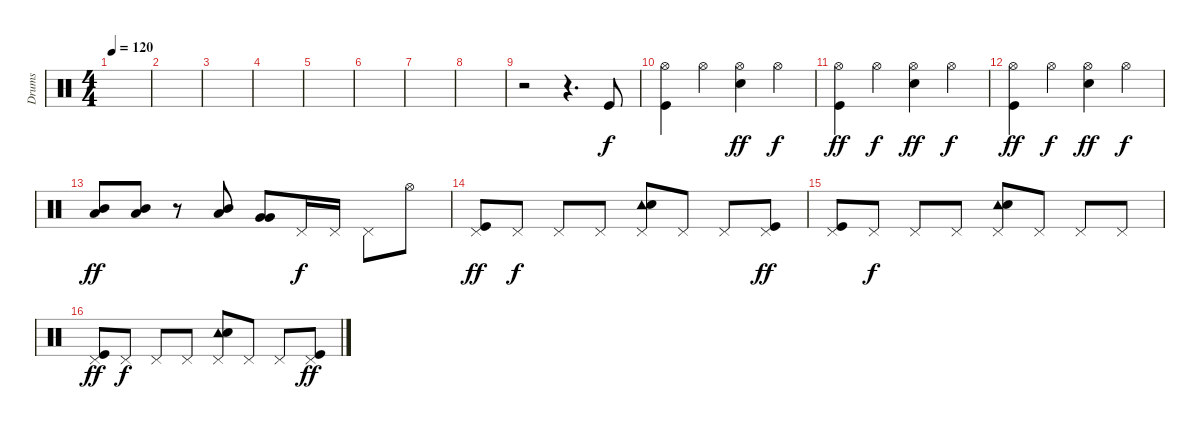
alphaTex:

\track ("Drums" "Drums") {instrument percussion}
\staff {score}
\articulation defaults
\ts (4 4)
\tempo 120
\clef neutral
\ks c
|
|
|
|
|
|
|
|
r.2 r.4{d} "Kick (hit)".8 |
("Hi-Hat (open)" "Kick (hit)").4 "Hi-Hat (open)".4{dy f} ("Hi-Hat (open)" "Electric Snare (hit)").4{dy ff} "Hi-Hat (open)".4{dy f} |
("Hi-Hat (open)" "Kick (hit)").4{dy ff} "Hi-Hat (open)".4{dy f} ("Hi-Hat (open)" "Electric Snare (hit)").4{dy ff} "Hi-Hat (open)".4{dy f} |
("Hi-Hat (open)" "Kick (hit)").4{dy ff} "Hi-Hat (open)".4{dy f} ("Hi-Hat (open)" "Electric Snare (hit)").4{dy ff} "Hi-Hat (open)".4{dy f} |
("Mid Tom (hit)" "Low Tom (hit)").8{dy ff} ("Mid Tom (hit)" "Low Tom (hit)").8 r.8 ("Mid Tom (hit)" "Low Tom (hit)").8 ("Very Low Tom (hit)" "Very Low Tom (hit)").8 "Pedal Hi-Hat (hit)".16{dy f} "Pedal Hi-Hat (hit)".16 "Pedal Hi-Hat (hit)".8 "Hi-Hat (open)".8 |
("Pedal Hi-Hat (hit)" "Kick (hit)").8{dy ff} "Pedal Hi-Hat (hit)".8{dy f} "Pedal Hi-Hat (hit)".8 "Pedal Hi-Hat (hit)".8 ("Pedal Hi-Hat (hit)" "Tambourine (hit)" "Electric Snare (hit)").8 "Pedal Hi-Hat (hit)".8 "Pedal Hi-Hat (hit)".8 ("Pedal Hi-Hat (hit)" "Kick (hit)").8{dy ff} |
("Pedal Hi-Hat (hit)" "Kick (hit)").8 "Pedal Hi-Hat (hit)".8{dy f} "Pedal Hi-Hat (hit)".8 "Pedal Hi-Hat (hit)".8 ("Pedal Hi-Hat (hit)" "Tambourine (hit)" "Electric Snare (hit)").8 "Pedal Hi-Hat (hit)".8 "Pedal Hi-Hat (hit)".8 "Pedal Hi-Hat (hit)".8 |
("Pedal Hi-Hat (hit)" "Kick (hit)").8{dy ff} "Pedal Hi-Hat (hit)".8{dy f} "Pedal Hi-Hat (hit)".8 "Pedal Hi-Hat (hit)".8 ("Pedal Hi-Hat (hit)" "Tambourine (hit)" "Electric Snare (hit)").8 "Pedal Hi-Hat (hit)".8 "Pedal Hi-Hat (hit)".8 ("Pedal Hi-Hat (hit)" "Kick (hit)").8{dy ff}
